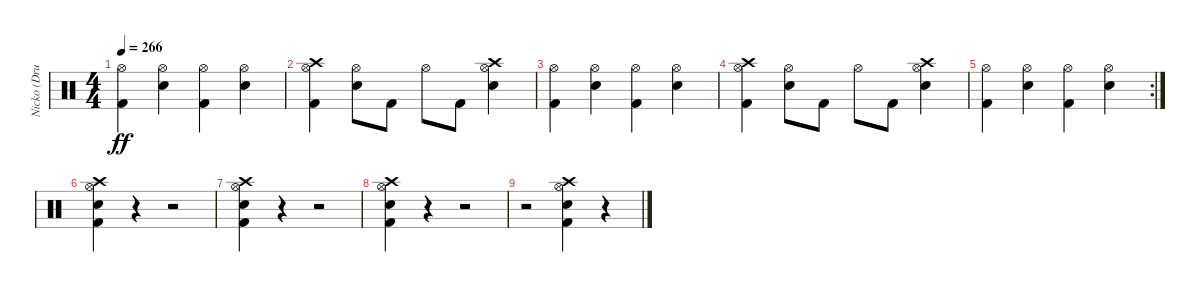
\track ("Nicko (Drums)" "Nicko (Dru") {instrument percussion}
\staff {score}
\articulation defaults
\ts (4 4)
\tempo 266
\clef neutral
\ks c
("Kick (hit) 2" "Hi-Hat (open)").4{dy ff} ("Snare (hit) 2" "Hi-Hat (open)").4 ("Kick (hit) 2" "Hi-Hat (open)").4 ("Snare (hit) 2" "Hi-Hat (open)").4 |
("Kick (hit) 2" "Hi-Hat (open)" "Crash high (hit)").4 ("Snare (hit) 2" "Hi-Hat (open)").8 "Kick (hit) 2".8 "Hi-Hat (open)".8 "Kick (hit) 2".8 ("Snare (hit) 2" "Hi-Hat (open)" "Crash high (hit)").4 |
("Kick (hit) 2" "Hi-Hat (open)").4 ("Snare (hit) 2" "Hi-Hat (open)").4 ("Kick (hit) 2" "Hi-Hat (open)").4 ("Snare (hit) 2" "Hi-Hat (open)").4 |
("Kick (hit) 2" "Hi-Hat (open)" "Crash high (hit)").4 ("Snare (hit) 2" "Hi-Hat (open)").8 "Kick (hit) 2".8 "Hi-Hat (open)".8 "Kick (hit) 2".8 ("Snare (hit) 2" "Hi-Hat (open)" "Crash high (hit)").4 |
\rc 2
("Kick (hit) 2" "Hi-Hat (open)").4 ("Snare (hit) 2" "Hi-Hat (open)").4 ("Kick (hit) 2" "Hi-Hat (open)").4 ("Snare (hit) 2" "Hi-Hat (open)").4 |
("Kick (hit) 2" "Snare (hit) 2" "Hi-Hat (open)" "Crash high (hit)").4 r.4 r.2 |
("Kick (hit) 2" "Snare (hit) 2" "Hi-Hat (open)" "Crash high (hit)").4 r.4 r.2 |
("Kick (hit) 2" "Snare (hit) 2" "Hi-Hat (open)" "Crash high (hit)").4 r.4 r.2 |
r.2 ("Kick (hit) 2" "Snare (hit) 2" "Hi-Hat (open)" "Crash high (hit)").4 r.4
